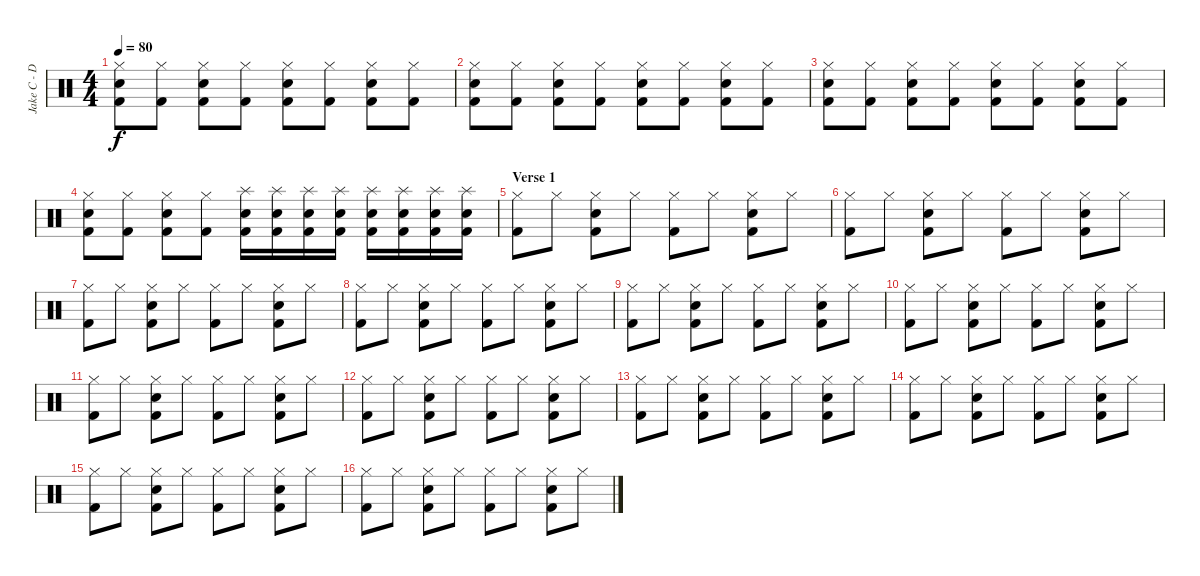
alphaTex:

\track ("Jake C - Drums" "Jake C - D") {instrument percussion}
\staff {score}
\articulation defaults
\ts (4 4)
\tempo 80
\clef neutral
\ks c
("Hi-Hat (closed)" "Electric Snare (hit)" "Kick (hit) 2").8{dy f} ("Hi-Hat (closed)" "Kick (hit) 2").8 ("Hi-Hat (closed)" "Electric Snare (hit)" "Kick (hit) 2").8 ("Hi-Hat (closed)" "Kick (hit) 2").8 ("Hi-Hat (closed)" "Electric Snare (hit)" "Kick (hit) 2").8 ("Hi-Hat (closed)" "Kick (hit) 2").8 ("Hi-Hat (closed)" "Electric Snare (hit)" "Kick (hit) 2").8 ("Hi-Hat (closed)" "Kick (hit) 2").8 |
("Hi-Hat (closed)" "Electric Snare (hit)" "Kick (hit) 2").8 ("Hi-Hat (closed)" "Kick (hit) 2").8 ("Hi-Hat (closed)" "Electric Snare (hit)" "Kick (hit) 2").8 ("Hi-Hat (closed)" "Kick (hit) 2").8 ("Hi-Hat (closed)" "Electric Snare (hit)" "Kick (hit) 2").8 ("Hi-Hat (closed)" "Kick (hit) 2").8 ("Hi-Hat (closed)" "Electric Snare (hit)" "Kick (hit) 2").8 ("Hi-Hat (closed)" "Kick (hit) 2").8 |
("Hi-Hat (closed)" "Electric Snare (hit)" "Kick (hit) 2").8 ("Hi-Hat (closed)" "Kick (hit) 2").8 ("Hi-Hat (closed)" "Electric Snare (hit)" "Kick (hit) 2").8 ("Hi-Hat (closed)" "Kick (hit) 2").8 ("Hi-Hat (closed)" "Electric Snare (hit)" "Kick (hit) 2").8 ("Hi-Hat (closed)" "Kick (hit) 2").8 ("Hi-Hat (closed)" "Electric Snare (hit)" "Kick (hit) 2").8 ("Hi-Hat (closed)" "Kick (hit) 2").8 |
("Hi-Hat (closed)" "Electric Snare (hit)" "Kick (hit) 2").8 ("Hi-Hat (closed)" "Kick (hit) 2").8 ("Hi-Hat (closed)" "Electric Snare (hit)" "Kick (hit) 2").8 ("Hi-Hat (closed)" "Kick (hit) 2").8 ("Splash (hit)" "Electric Snare (hit)" "Kick (hit) 2").16 ("Splash (hit)" "Electric Snare (hit)" "Kick (hit) 2").16 ("Splash (hit)" "Electric Snare (hit)" "Kick (hit) 2").16 ("Splash (hit)" "Electric Snare (hit)" "Kick (hit) 2").16 ("Splash (hit)" "Electric Snare (hit)" "Kick (hit) 2").16 ("Splash (hit)" "Electric Snare (hit)" "Kick (hit) 2").16 ("Splash (hit)" "Electric Snare (hit)" "Kick (hit) 2").16 ("Splash (hit)" "Electric Snare (hit)" "Kick (hit) 2").16 |
\section ("" "Verse 1")
("Hi-Hat (closed)" "Kick (hit) 2").8 "Hi-Hat (closed)".8 ("Hi-Hat (closed)" "Electric Snare (hit)" "Kick (hit) 2").8 "Hi-Hat (closed)".8 ("Hi-Hat (closed)" "Kick (hit) 2").8 "Hi-Hat (closed)".8 ("Hi-Hat (closed)" "Electric Snare (hit)" "Kick (hit) 2").8 "Hi-Hat (closed)".8 |
("Hi-Hat (closed)" "Kick (hit) 2").8 "Hi-Hat (closed)".8 ("Hi-Hat (closed)" "Electric Snare (hit)" "Kick (hit) 2").8 "Hi-Hat (closed)".8 ("Hi-Hat (closed)" "Kick (hit) 2").8 "Hi-Hat (closed)".8 ("Hi-Hat (closed)" "Electric Snare (hit)" "Kick (hit) 2").8 "Hi-Hat (closed)".8 |
("Hi-Hat (closed)" "Kick (hit) 2").8 "Hi-Hat (closed)".8 ("Hi-Hat (closed)" "Electric Snare (hit)" "Kick (hit) 2").8 "Hi-Hat (closed)".8 ("Hi-Hat (closed)" "Kick (hit) 2").8 "Hi-Hat (closed)".8 ("Hi-Hat (closed)" "Electric Snare (hit)" "Kick (hit) 2").8 "Hi-Hat (closed)".8 |
("Hi-Hat (closed)" "Kick (hit) 2").8 "Hi-Hat (closed)".8 ("Hi-Hat (closed)" "Electric Snare (hit)" "Kick (hit) 2").8 "Hi-Hat (closed)".8 ("Hi-Hat (closed)" "Kick (hit) 2").8 "Hi-Hat (closed)".8 ("Hi-Hat (closed)" "Electric Snare (hit)" "Kick (hit) 2").8 "Hi-Hat (closed)".8 |
("Hi-Hat (closed)" "Kick (hit) 2").8 "Hi-Hat (closed)".8 ("Hi-Hat (closed)" "Electric Snare (hit)" "Kick (hit) 2").8 "Hi-Hat (closed)".8 ("Hi-Hat (closed)" "Kick (hit) 2").8 "Hi-Hat (closed)".8 ("Hi-Hat (closed)" "Electric Snare (hit)" "Kick (hit) 2").8 "Hi-Hat (closed)".8 |
("Hi-Hat (closed)" "Kick (hit) 2").8 "Hi-Hat (closed)".8 ("Hi-Hat (closed)" "Electric Snare (hit)" "Kick (hit) 2").8 "Hi-Hat (closed)".8 ("Hi-Hat (closed)" "Kick (hit) 2").8 "Hi-Hat (closed)".8 ("Hi-Hat (closed)" "Electric Snare (hit)" "Kick (hit) 2").8 "Hi-Hat (closed)".8 |
("Hi-Hat (closed)" "Kick (hit) 2").8 "Hi-Hat (closed)".8 ("Hi-Hat (closed)" "Electric Snare (hit)" "Kick (hit) 2").8 "Hi-Hat (closed)".8 ("Hi-Hat (closed)" "Kick (hit) 2").8 "Hi-Hat (closed)".8 ("Hi-Hat (closed)" "Electric Snare (hit)" "Kick (hit) 2").8 "Hi-Hat (closed)".8 |
("Hi-Hat (closed)" "Kick (hit) 2").8 "Hi-Hat (closed)".8 ("Hi-Hat (closed)" "Electric Snare (hit)" "Kick (hit) 2").8 "Hi-Hat (closed)".8 ("Hi-Hat (closed)" "Kick (hit) 2").8 "Hi-Hat (closed)".8 ("Hi-Hat (closed)" "Electric Snare (hit)" "Kick (hit) 2").8 "Hi-Hat (closed)".8 |
("Hi-Hat (closed)" "Kick (hit) 2").8 "Hi-Hat (closed)".8 ("Hi-Hat (closed)" "Electric Snare (hit)" "Kick (hit) 2").8 "Hi-Hat (closed)".8 ("Hi-Hat (closed)" "Kick (hit) 2").8 "Hi-Hat (closed)".8 ("Hi-Hat (closed)" "Electric Snare (hit)" "Kick (hit) 2").8 "Hi-Hat (closed)".8 |
("Hi-Hat (closed)" "Kick (hit) 2").8 "Hi-Hat (closed)".8 ("Hi-Hat (closed)" "Electric Snare (hit)" "Kick (hit) 2").8 "Hi-Hat (closed)".8 ("Hi-Hat (closed)" "Kick (hit) 2").8 "Hi-Hat (closed)".8 ("Hi-Hat (closed)" "Electric Snare (hit)" "Kick (hit) 2").8 "Hi-Hat (closed)".8 |
("Hi-Hat (closed)" "Kick (hit) 2").8 "Hi-Hat (closed)".8 ("Hi-Hat (closed)" "Electric Snare (hit)" "Kick (hit) 2").8 "Hi-Hat (closed)".8 ("Hi-Hat (closed)" "Kick (hit) 2").8 "Hi-Hat (closed)".8 ("Hi-Hat (closed)" "Electric Snare (hit)" "Kick (hit) 2").8 "Hi-Hat (closed)".8 |
("Hi-Hat (closed)" "Kick (hit) 2").8 "Hi-Hat (closed)".8 ("Hi-Hat (closed)" "Electric Snare (hit)" "Kick (hit) 2").8 "Hi-Hat (closed)".8 ("Hi-Hat (closed)" "Kick (hit) 2").8 "Hi-Hat (closed)".8 ("Hi-Hat (closed)" "Electric Snare (hit)" "Kick (hit) 2").8 "Hi-Hat (closed)".8
